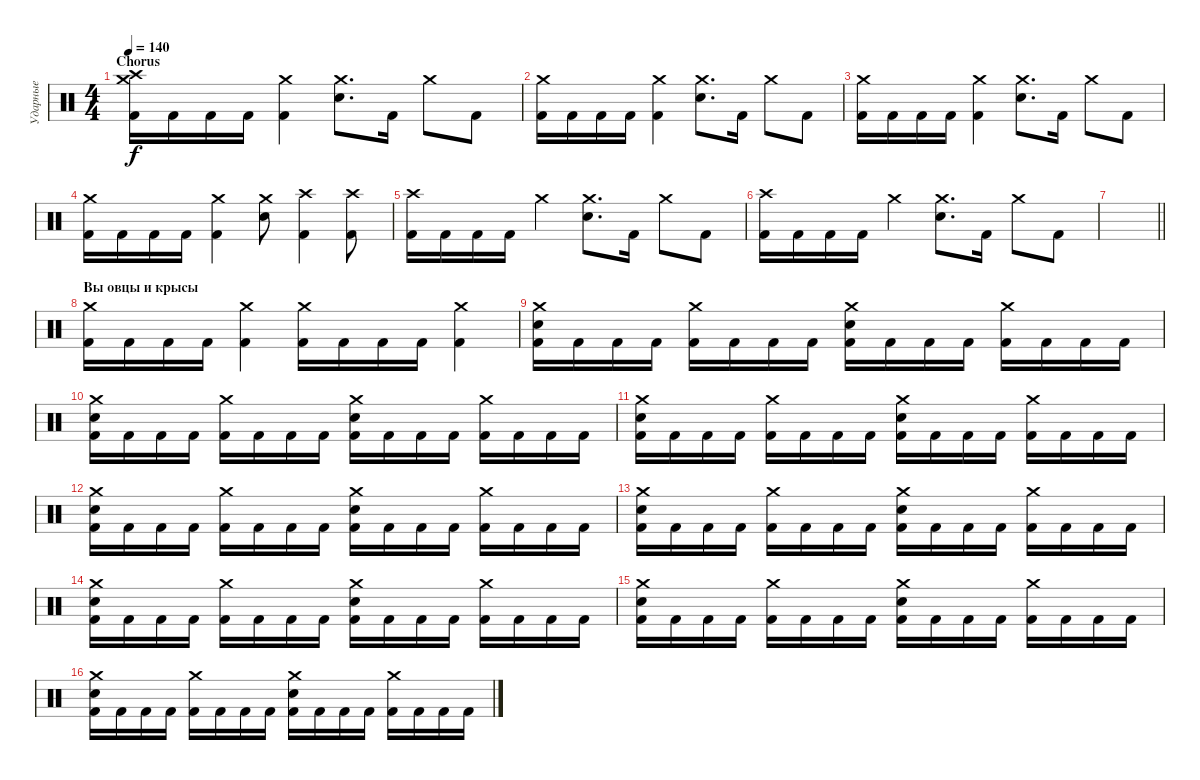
\track ("Ударные" "Ударные") {instrument percussion}
\staff {score}
\articulation defaults
\ts (4 4)
\section ("" "Chorus")
\tempo 140
\clef neutral
\ks c
("Crash medium (hit)" "Crash high (hit)" "Kick (hit) 2").16{dy f} "Kick (hit) 2".16 "Kick (hit) 2".16 "Kick (hit) 2".16 ("Crash medium (hit)" "Kick (hit) 2").4 ("Crash medium (hit)" "Electric Snare (hit)").8{d} "Kick (hit) 2".16 "Crash medium (hit)".8 "Kick (hit) 2".8 |
("Crash medium (hit)" "Kick (hit) 2").16 "Kick (hit) 2".16 "Kick (hit) 2".16 "Kick (hit) 2".16 ("Crash medium (hit)" "Kick (hit) 2").4 ("Crash medium (hit)" "Electric Snare (hit)").8{d} "Kick (hit) 2".16 "Crash medium (hit)".8 "Kick (hit) 2".8 |
("Crash medium (hit)" "Kick (hit) 2").16 "Kick (hit) 2".16 "Kick (hit) 2".16 "Kick (hit) 2".16 ("Crash medium (hit)" "Kick (hit) 2").4 ("Crash medium (hit)" "Electric Snare (hit)").8{d} "Kick (hit) 2".16 "Crash medium (hit)".8 "Kick (hit) 2".8 |
("Crash medium (hit)" "Kick (hit) 2").16 "Kick (hit) 2".16 "Kick (hit) 2".16 "Kick (hit) 2".16 ("Crash medium (hit)" "Kick (hit) 2").4 ("Crash medium (hit)" "Electric Snare (hit)").8 ("Crash high (hit)" "Kick (hit) 2").4 ("Crash high (hit)" "Kick (hit) 2").8 |
("Crash high (hit)" "Kick (hit) 2").16 "Kick (hit) 2".16 "Kick (hit) 2".16 "Kick (hit) 2".16 "Crash medium (hit)".4 ("Crash medium (hit)" "Electric Snare (hit)").8{d} "Kick (hit) 2".16 "Crash medium (hit)".8 "Kick (hit) 2".8 |
("Crash high (hit)" "Kick (hit) 2").16 "Kick (hit) 2".16 "Kick (hit) 2".16 "Kick (hit) 2".16 "Crash medium (hit)".4 ("Crash medium (hit)" "Electric Snare (hit)").8{d} "Kick (hit) 2".16 "Crash medium (hit)".8 "Kick (hit) 2".8 |
\barLineRight lightlight
|
\section ("" "Вы овцы и крыcы")
("Crash medium (hit)" "Kick (hit) 2").16 "Kick (hit) 2".16 "Kick (hit) 2".16 "Kick (hit) 2".16 ("Crash medium (hit)" "Kick (hit) 2").4 ("Crash medium (hit)" "Kick (hit) 2").16 "Kick (hit) 2".16 "Kick (hit) 2".16 "Kick (hit) 2".16 ("Crash medium (hit)" "Kick (hit) 2").4 |
("Crash medium (hit)" "Electric Snare (hit)" "Kick (hit) 2").16 "Kick (hit) 2".16 "Kick (hit) 2".16 "Kick (hit) 2".16 ("Crash medium (hit)" "Kick (hit) 2").16 "Kick (hit) 2".16 "Kick (hit) 2".16 "Kick (hit) 2".16 ("Crash medium (hit)" "Electric Snare (hit)" "Kick (hit) 2").16 "Kick (hit) 2".16 "Kick (hit) 2".16 "Kick (hit) 2".16 ("Crash medium (hit)" "Kick (hit) 2").16 "Kick (hit) 2".16 "Kick (hit) 2".16 "Kick (hit) 2".16 |
("Crash medium (hit)" "Electric Snare (hit)" "Kick (hit) 2").16 "Kick (hit) 2".16 "Kick (hit) 2".16 "Kick (hit) 2".16 ("Crash medium (hit)" "Kick (hit) 2").16 "Kick (hit) 2".16 "Kick (hit) 2".16 "Kick (hit) 2".16 ("Crash medium (hit)" "Electric Snare (hit)" "Kick (hit) 2").16 "Kick (hit) 2".16 "Kick (hit) 2".16 "Kick (hit) 2".16 ("Crash medium (hit)" "Kick (hit) 2").16 "Kick (hit) 2".16 "Kick (hit) 2".16 "Kick (hit) 2".16 |
("Crash medium (hit)" "Electric Snare (hit)" "Kick (hit) 2").16 "Kick (hit) 2".16 "Kick (hit) 2".16 "Kick (hit) 2".16 ("Crash medium (hit)" "Kick (hit) 2").16 "Kick (hit) 2".16 "Kick (hit) 2".16 "Kick (hit) 2".16 ("Crash medium (hit)" "Electric Snare (hit)" "Kick (hit) 2").16 "Kick (hit) 2".16 "Kick (hit) 2".16 "Kick (hit) 2".16 ("Crash medium (hit)" "Kick (hit) 2").16 "Kick (hit) 2".16 "Kick (hit) 2".16 "Kick (hit) 2".16 |
("Crash medium (hit)" "Electric Snare (hit)" "Kick (hit) 2").16 "Kick (hit) 2".16 "Kick (hit) 2".16 "Kick (hit) 2".16 ("Crash medium (hit)" "Kick (hit) 2").16 "Kick (hit) 2".16 "Kick (hit) 2".16 "Kick (hit) 2".16 ("Crash medium (hit)" "Electric Snare (hit)" "Kick (hit) 2").16 "Kick (hit) 2".16 "Kick (hit) 2".16 "Kick (hit) 2".16 ("Crash medium (hit)" "Kick (hit) 2").16 "Kick (hit) 2".16 "Kick (hit) 2".16 "Kick (hit) 2".16 |
("Crash medium (hit)" "Electric Snare (hit)" "Kick (hit) 2").16 "Kick (hit) 2".16 "Kick (hit) 2".16 "Kick (hit) 2".16 ("Crash medium (hit)" "Kick (hit) 2").16 "Kick (hit) 2".16 "Kick (hit) 2".16 "Kick (hit) 2".16 ("Crash medium (hit)" "Electric Snare (hit)" "Kick (hit) 2").16 "Kick (hit) 2".16 "Kick (hit) 2".16 "Kick (hit) 2".16 ("Crash medium (hit)" "Kick (hit) 2").16 "Kick (hit) 2".16 "Kick (hit) 2".16 "Kick (hit) 2".16 |
("Crash medium (hit)" "Electric Snare (hit)" "Kick (hit) 2").16 "Kick (hit) 2".16 "Kick (hit) 2".16 "Kick (hit) 2".16 ("Crash medium (hit)" "Kick (hit) 2").16 "Kick (hit) 2".16 "Kick (hit) 2".16 "Kick (hit) 2".16 ("Crash medium (hit)" "Electric Snare (hit)" "Kick (hit) 2").16 "Kick (hit) 2".16 "Kick (hit) 2".16 "Kick (hit) 2".16 ("Crash medium (hit)" "Kick (hit) 2").16 "Kick (hit) 2".16 "Kick (hit) 2".16 "Kick (hit) 2".16 |
("Crash medium (hit)" "Electric Snare (hit)" "Kick (hit) 2").16 "Kick (hit) 2".16 "Kick (hit) 2".16 "Kick (hit) 2".16 ("Crash medium (hit)" "Kick (hit) 2").16 "Kick (hit) 2".16 "Kick (hit) 2".16 "Kick (hit) 2".16 ("Crash medium (hit)" "Electric Snare (hit)" "Kick (hit) 2").16 "Kick (hit) 2".16 "Kick (hit) 2".16 "Kick (hit) 2".16 ("Crash medium (hit)" "Kick (hit) 2").16 "Kick (hit) 2".16 "Kick (hit) 2".16 "Kick (hit) 2".16 |
("Crash medium (hit)" "Electric Snare (hit)" "Kick (hit) 2").16 "Kick (hit) 2".16 "Kick (hit) 2".16 "Kick (hit) 2".16 ("Crash medium (hit)" "Kick (hit) 2").16 "Kick (hit) 2".16 "Kick (hit) 2".16 "Kick (hit) 2".16 ("Crash medium (hit)" "Electric Snare (hit)" "Kick (hit) 2").16 "Kick (hit) 2".16 "Kick (hit) 2".16 "Kick (hit) 2".16 ("Crash medium (hit)" "Kick (hit) 2").16 "Kick (hit) 2".16 "Kick (hit) 2".16 "Kick (hit) 2".16
